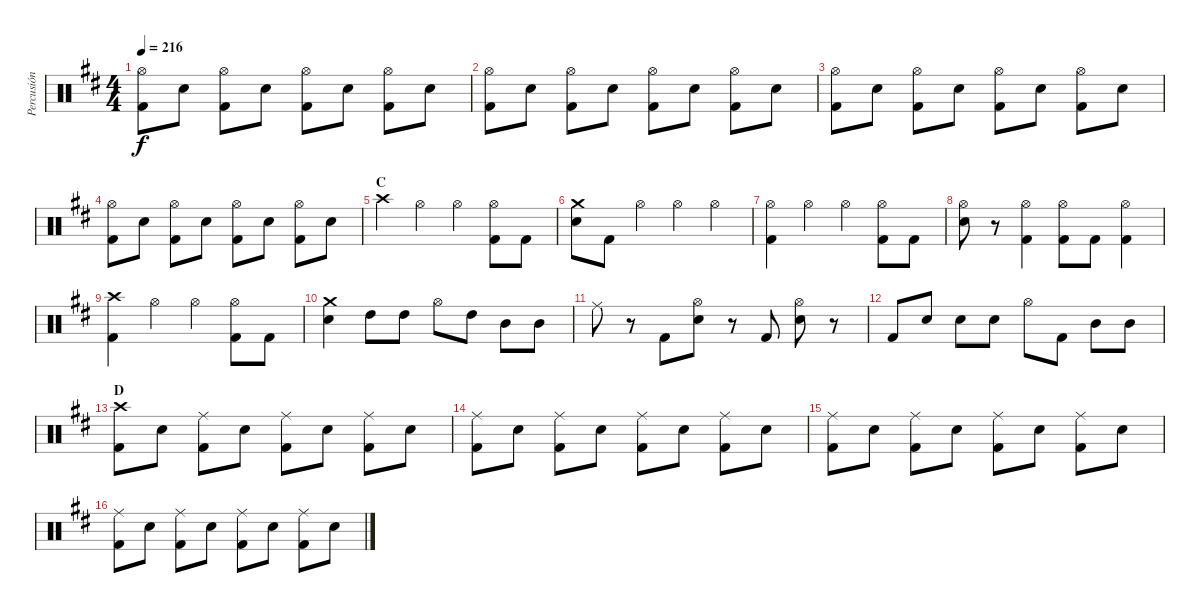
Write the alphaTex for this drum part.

\track ("Percusión" "Percusión") {instrument percussion}
\staff {score}
\articulation defaults
\ts (4 4)
\tempo 216
\clef neutral
\ks d
("Hi-Hat (open)" "Kick (hit) 2").8{dy f} "Electric Snare (hit)".8 ("Hi-Hat (open)" "Kick (hit) 2").8 "Electric Snare (hit)".8 ("Hi-Hat (open)" "Kick (hit) 2").8 "Electric Snare (hit)".8 ("Hi-Hat (open)" "Kick (hit) 2").8 "Electric Snare (hit)".8 |
("Hi-Hat (open)" "Kick (hit) 2").8 "Electric Snare (hit)".8 ("Hi-Hat (open)" "Kick (hit) 2").8 "Electric Snare (hit)".8 ("Hi-Hat (open)" "Kick (hit) 2").8 "Electric Snare (hit)".8 ("Hi-Hat (open)" "Kick (hit) 2").8 "Electric Snare (hit)".8 |
("Hi-Hat (open)" "Kick (hit) 2").8 "Electric Snare (hit)".8 ("Hi-Hat (open)" "Kick (hit) 2").8 "Electric Snare (hit)".8 ("Hi-Hat (open)" "Kick (hit) 2").8 "Electric Snare (hit)".8 ("Hi-Hat (open)" "Kick (hit) 2").8 "Electric Snare (hit)".8 |
("Hi-Hat (open)" "Kick (hit) 2").8 "Electric Snare (hit)".8 ("Hi-Hat (open)" "Kick (hit) 2").8 "Electric Snare (hit)".8 ("Hi-Hat (open)" "Kick (hit) 2").8 "Electric Snare (hit)".8 ("Hi-Hat (open)" "Kick (hit) 2").8 "Electric Snare (hit)".8 |
\section ("" "C")
"Crash high (hit)".4 "Hi-Hat (open)".4 "Hi-Hat (open)".4 ("Hi-Hat (open)" "Kick (hit) 2").8 "Kick (hit) 2".8 |
("Crash medium (hit)" "Electric Snare (hit)").8 "Kick (hit) 2".8 "Hi-Hat (open)".4 "Hi-Hat (open)".4 "Hi-Hat (open)".4 |
("Hi-Hat (open)" "Kick (hit) 2").4 "Hi-Hat (open)".4 "Hi-Hat (open)".4 ("Hi-Hat (open)" "Kick (hit) 2").8 "Kick (hit) 2".8 |
("Hi-Hat (open)" "Electric Snare (hit)").8 r.8 ("Hi-Hat (open)" "Kick (hit) 2").4 ("Hi-Hat (open)" "Kick (hit) 2").8 "Kick (hit) 2".8 ("Hi-Hat (open)" "Kick (hit) 2").4 |
("Crash high (hit)" "Kick (hit) 2").4 "Hi-Hat (open)".4 "Hi-Hat (open)".4 ("Hi-Hat (open)" "Kick (hit) 2").8 "Kick (hit) 2".8 |
("Crash medium (hit)" "Electric Snare (hit)").4 "High Tom (hit)".8 "High Tom (hit)".8 "Hi-Hat (open)".8 "High Tom (hit)".8 "Mid Tom (hit)".8 "Mid Tom (hit)".8 |
"Ride (middle)".8 r.8 "Kick (hit) 2".8 ("Hi-Hat (open)" "Electric Snare (hit)").8 r.8 "Kick (hit) 2".8 ("Hi-Hat (open)" "Electric Snare (hit)").8 r.8 |
"Kick (hit) 2".8 "Electric Snare (hit)".8 "Electric Snare (hit)".8 "Electric Snare (hit)".8 "Hi-Hat (open)".8 "Kick (hit) 2".8 "Mid Tom (hit)".8 "Mid Tom (hit)".8 |
\section ("" "D")
("Crash high (hit)" "Kick (hit) 2").8 "Electric Snare (hit)".8 ("Ride (middle)" "Kick (hit) 2").8 "Electric Snare (hit)".8 ("Ride (middle)" "Kick (hit) 2").8 "Electric Snare (hit)".8 ("Ride (middle)" "Kick (hit) 2").8 "Electric Snare (hit)".8 |
("Ride (middle)" "Kick (hit) 2").8 "Electric Snare (hit)".8 ("Ride (middle)" "Kick (hit) 2").8 "Electric Snare (hit)".8 ("Ride (middle)" "Kick (hit) 2").8 "Electric Snare (hit)".8 ("Ride (middle)" "Kick (hit) 2").8 "Electric Snare (hit)".8 |
("Ride (middle)" "Kick (hit) 2").8 "Electric Snare (hit)".8 ("Ride (middle)" "Kick (hit) 2").8 "Electric Snare (hit)".8 ("Ride (middle)" "Kick (hit) 2").8 "Electric Snare (hit)".8 ("Ride (middle)" "Kick (hit) 2").8 "Electric Snare (hit)".8 |
("Ride (middle)" "Kick (hit) 2").8 "Electric Snare (hit)".8 ("Ride (middle)" "Kick (hit) 2").8 "Electric Snare (hit)".8 ("Ride (middle)" "Kick (hit) 2").8 "Electric Snare (hit)".8 ("Ride (middle)" "Kick (hit) 2").8 "Electric Snare (hit)".8
